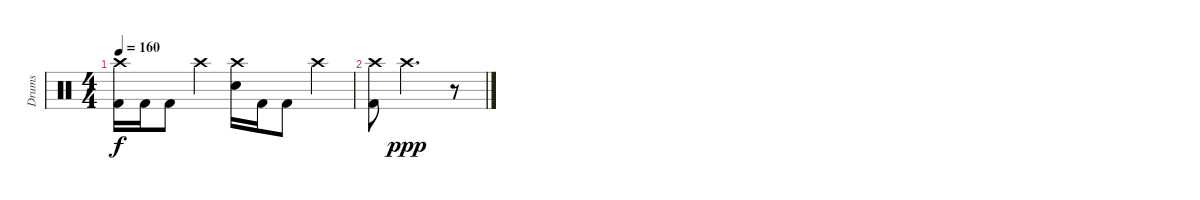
\track ("Drums" "Drums") {instrument percussion}
\staff {score}
\articulation defaults
\ts (4 4)
\tempo 160
\clef neutral
\ks c
("Crash high (hit)" "Kick (hit) 2").16{dy f} "Kick (hit) 2".16 "Kick (hit) 2".8 "Crash high (hit)".4 ("Crash high (hit)" "Electric Snare (hit)").16 "Kick (hit) 2".16 "Kick (hit) 2".8 "Crash high (hit)".4 |
("Crash high (hit)" "Kick (hit) 2").8 "Crash high (hit)".2{d dy ppp} r.8
